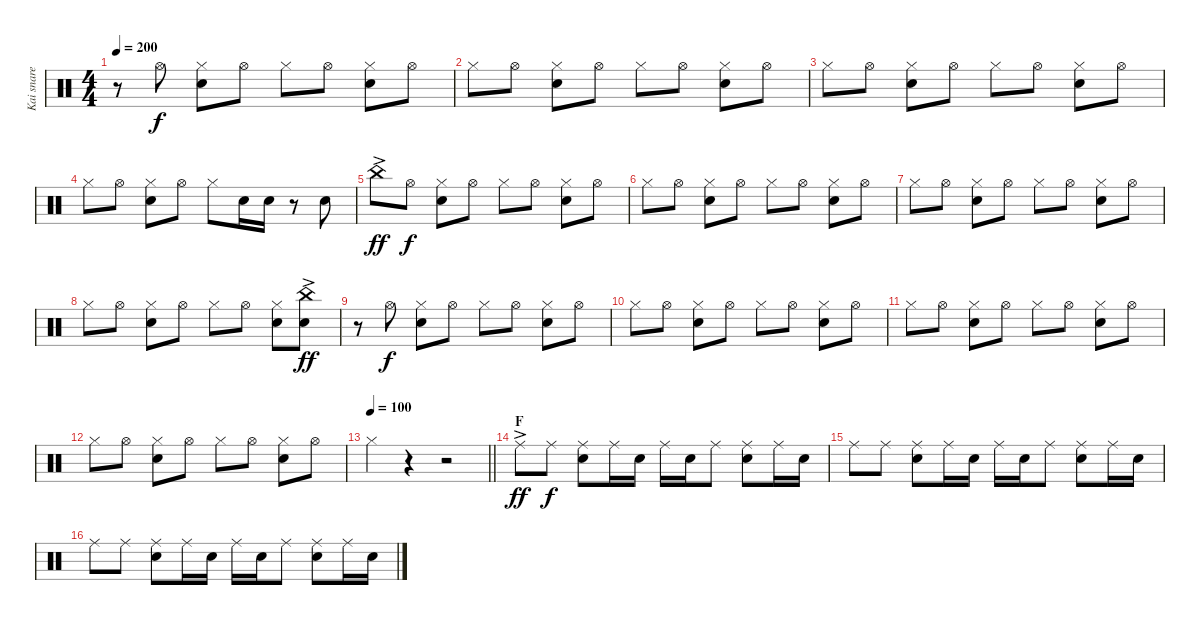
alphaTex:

\track ("Kai snare" "Kai snare") {instrument percussion}
\staff {score}
\articulation defaults
\ts (4 4)
\tempo 200
\clef neutral
\ks c
r.8{dy ff} "Hi-Hat (open)".8{dy f} ("Hi-Hat (closed)" "Snare (hit) 2").8 "Hi-Hat (open)".8 "Hi-Hat (closed)".8 "Hi-Hat (open)".8 ("Hi-Hat (closed)" "Snare (hit) 2").8 "Hi-Hat (open)".8 |
"Hi-Hat (closed)".8 "Hi-Hat (open)".8 ("Hi-Hat (closed)" "Snare (hit) 2").8 "Hi-Hat (open)".8 "Hi-Hat (closed)".8 "Hi-Hat (open)".8 ("Hi-Hat (closed)" "Snare (hit) 2").8 "Hi-Hat (open)".8 |
"Hi-Hat (closed)".8 "Hi-Hat (open)".8 ("Hi-Hat (closed)" "Snare (hit) 2").8 "Hi-Hat (open)".8 "Hi-Hat (closed)".8 "Hi-Hat (open)".8 ("Hi-Hat (closed)" "Snare (hit) 2").8 "Hi-Hat (open)".8 |
"Hi-Hat (closed)".8 "Hi-Hat (open)".8 ("Hi-Hat (closed)" "Snare (hit) 2").8 "Hi-Hat (open)".8 "Hi-Hat (closed)".8 "Snare (hit) 2".16 "Snare (hit) 2".16 r.8 "Snare (hit) 2".8 |
"China (hit)"{ac}.8{dy ff} "Hi-Hat (open)".8{dy f} ("Hi-Hat (closed)" "Snare (hit) 2").8 "Hi-Hat (open)".8 "Hi-Hat (closed)".8 "Hi-Hat (open)".8 ("Hi-Hat (closed)" "Snare (hit) 2").8 "Hi-Hat (open)".8 |
"Hi-Hat (closed)".8 "Hi-Hat (open)".8 ("Hi-Hat (closed)" "Snare (hit) 2").8 "Hi-Hat (open)".8 "Hi-Hat (closed)".8 "Hi-Hat (open)".8 ("Hi-Hat (closed)" "Snare (hit) 2").8 "Hi-Hat (open)".8 |
"Hi-Hat (closed)".8 "Hi-Hat (open)".8 ("Hi-Hat (closed)" "Snare (hit) 2").8 "Hi-Hat (open)".8 "Hi-Hat (closed)".8 "Hi-Hat (open)".8 ("Hi-Hat (closed)" "Snare (hit) 2").8 "Hi-Hat (open)".8 |
"Hi-Hat (closed)".8 "Hi-Hat (open)".8 ("Hi-Hat (closed)" "Snare (hit) 2").8 "Hi-Hat (open)".8 "Hi-Hat (closed)".8 "Hi-Hat (open)".8 ("Hi-Hat (closed)" "Snare (hit) 2").8 ("China (hit)"{ac} "Snare (hit) 2").8{dy ff} |
r.8 "Hi-Hat (open)".8{dy f} ("Hi-Hat (closed)" "Snare (hit) 2").8 "Hi-Hat (open)".8 "Hi-Hat (closed)".8 "Hi-Hat (open)".8 ("Hi-Hat (closed)" "Snare (hit) 2").8 "Hi-Hat (open)".8 |
"Hi-Hat (closed)".8 "Hi-Hat (open)".8 ("Hi-Hat (closed)" "Snare (hit) 2").8 "Hi-Hat (open)".8 "Hi-Hat (closed)".8 "Hi-Hat (open)".8 ("Hi-Hat (closed)" "Snare (hit) 2").8 "Hi-Hat (open)".8 |
"Hi-Hat (closed)".8 "Hi-Hat (open)".8 ("Hi-Hat (closed)" "Snare (hit) 2").8 "Hi-Hat (open)".8 "Hi-Hat (closed)".8 "Hi-Hat (open)".8 ("Hi-Hat (closed)" "Snare (hit) 2").8 "Hi-Hat (open)".8 |
"Hi-Hat (closed)".8 "Hi-Hat (open)".8 ("Hi-Hat (closed)" "Snare (hit) 2").8 "Hi-Hat (open)".8 "Hi-Hat (closed)".8 "Hi-Hat (open)".8 ("Hi-Hat (closed)" "Snare (hit) 2").8 "Hi-Hat (open)".8 |
\tempo 100
\barLineRight lightlight "Hi-Hat (closed)".4
r.4 r.2 |
\section ("" "F")
"Ride (middle)"{ac}.8{dy ff} "Ride (middle)".8{dy f} ("Ride (middle)" "Snare (hit) 2").8 "Ride (middle)".16 "Snare (hit) 2".16 "Ride (middle)".16 "Snare (hit) 2".16 "Ride (middle)".8 ("Ride (middle)" "Snare (hit) 2").8 "Ride (middle)".16 "Snare (hit) 2".16 |
"Ride (middle)".8 "Ride (middle)".8 ("Ride (middle)" "Snare (hit) 2").8 "Ride (middle)".16 "Snare (hit) 2".16 "Ride (middle)".16 "Snare (hit) 2".16 "Ride (middle)".8 ("Ride (middle)" "Snare (hit) 2").8 "Ride (middle)".16 "Snare (hit) 2".16 |
"Ride (middle)".8 "Ride (middle)".8 ("Ride (middle)" "Snare (hit) 2").8 "Ride (middle)".16 "Snare (hit) 2".16 "Ride (middle)".16 "Snare (hit) 2".16 "Ride (middle)".8 ("Ride (middle)" "Snare (hit) 2").8 "Ride (middle)".16 "Snare (hit) 2".16
